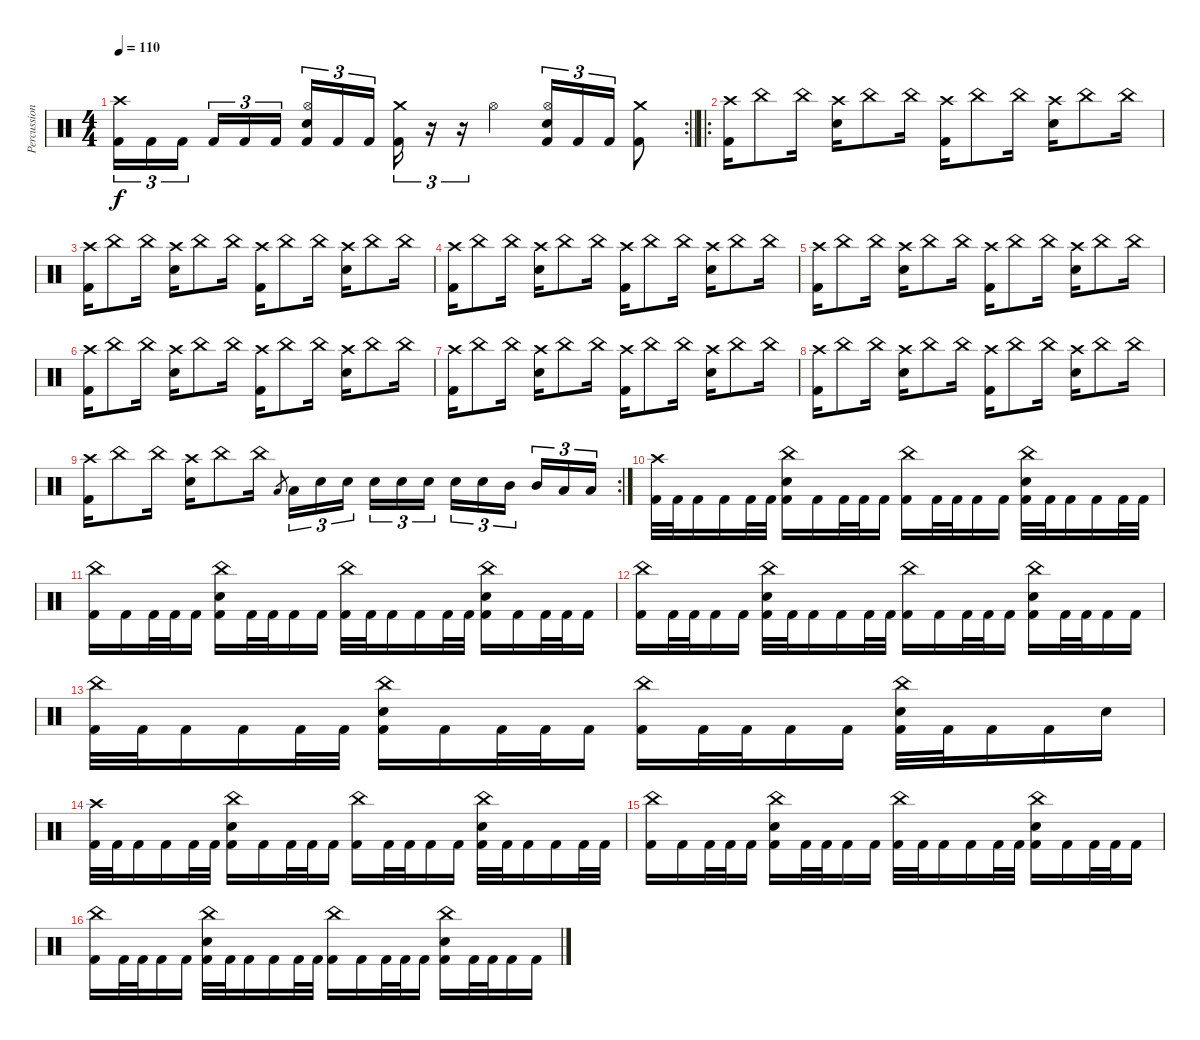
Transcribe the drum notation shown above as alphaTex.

\track ("Percussions" "Percussion") {instrument percussion}
\staff {score}
\articulation defaults
\rc 2
\ts (4 4)
\tempo 110
\clef neutral
\barLineRight lightlight
\ks c
("Crash high (hit)" "Kick (hit) 2").16{tu (3 2) dy f} "Kick (hit) 2".16{tu (3 2)} "Kick (hit) 2".16{tu (3 2) beam splitsecondary} "Kick (hit) 2".16{tu (3 2)} "Kick (hit) 2".16{tu (3 2)} "Kick (hit) 2".16{tu (3 2)} ("Hi-Hat (open)" "Electric Snare (hit)" "Kick (hit) 2").16{tu (3 2)} "Kick (hit) 2".16{tu (3 2)} "Kick (hit) 2".16{tu (3 2) beam splitsecondary} ("Crash medium (hit)" "Kick (hit) 2").16{tu (3 2)} r.16{tu (3 2)} r.16{tu (3 2)} "Hi-Hat (open)".4 ("Hi-Hat (open)" "Electric Snare (hit)" "Kick (hit) 2").16{tu (3 2)} "Kick (hit) 2".16{tu (3 2)} "Kick (hit) 2".16{tu (3 2)} ("Crash medium (hit)" "Kick (hit) 2").8 |
\ro
\section ("" "")
("Crash high (hit)" "Kick (hit) 2").16 "China (hit)".8 "China (hit)".16 ("Crash high (hit)" "Electric Snare (hit)").16 "China (hit)".8 "China (hit)".16 ("Crash high (hit)" "Kick (hit) 2").16 "China (hit)".8 "China (hit)".16 ("Crash high (hit)" "Electric Snare (hit)").16 "China (hit)".8 "China (hit)".16 |
("Crash high (hit)" "Kick (hit) 2").16 "China (hit)".8 "China (hit)".16 ("Crash high (hit)" "Electric Snare (hit)").16 "China (hit)".8 "China (hit)".16 ("Crash high (hit)" "Kick (hit) 2").16 "China (hit)".8 "China (hit)".16 ("Crash high (hit)" "Electric Snare (hit)").16 "China (hit)".8 "China (hit)".16 |
("Crash high (hit)" "Kick (hit) 2").16 "China (hit)".8 "China (hit)".16 ("Crash high (hit)" "Electric Snare (hit)").16 "China (hit)".8 "China (hit)".16 ("Crash high (hit)" "Kick (hit) 2").16 "China (hit)".8 "China (hit)".16 ("Crash high (hit)" "Electric Snare (hit)").16 "China (hit)".8 "China (hit)".16 |
("Crash high (hit)" "Kick (hit) 2").16 "China (hit)".8 "China (hit)".16 ("Crash high (hit)" "Electric Snare (hit)").16 "China (hit)".8 "China (hit)".16 ("Crash high (hit)" "Kick (hit) 2").16 "China (hit)".8 "China (hit)".16 ("Crash high (hit)" "Electric Snare (hit)").16 "China (hit)".8 "China (hit)".16 |
("Crash high (hit)" "Kick (hit) 2").16 "China (hit)".8 "China (hit)".16 ("Crash high (hit)" "Electric Snare (hit)").16 "China (hit)".8 "China (hit)".16 ("Crash high (hit)" "Kick (hit) 2").16 "China (hit)".8 "China (hit)".16 ("Crash high (hit)" "Electric Snare (hit)").16 "China (hit)".8 "China (hit)".16 |
("Crash high (hit)" "Kick (hit) 2").16 "China (hit)".8 "China (hit)".16 ("Crash high (hit)" "Electric Snare (hit)").16 "China (hit)".8 "China (hit)".16 ("Crash high (hit)" "Kick (hit) 2").16 "China (hit)".8 "China (hit)".16 ("Crash high (hit)" "Electric Snare (hit)").16 "China (hit)".8 "China (hit)".16 |
("Crash high (hit)" "Kick (hit) 2").16 "China (hit)".8 "China (hit)".16 ("Crash high (hit)" "Electric Snare (hit)").16 "China (hit)".8 "China (hit)".16 ("Crash high (hit)" "Kick (hit) 2").16 "China (hit)".8 "China (hit)".16 ("Crash high (hit)" "Electric Snare (hit)").16 "China (hit)".8 "China (hit)".16 |
\rc 2
("Crash high (hit)" "Kick (hit) 2").16 "China (hit)".8 "China (hit)".16 ("Crash high (hit)" "Electric Snare (hit)").16 "China (hit)".8 "China (hit)".16 "Low Tom (hit)".8{gr} "Low Tom (hit)".16{tu (3 2)} "Electric Snare (hit)".16{tu (3 2)} "Electric Snare (hit)".16{tu (3 2) beam splitsecondary} "Electric Snare (hit)".16{tu (3 2)} "Electric Snare (hit)".16{tu (3 2)} "Electric Snare (hit)".16{tu (3 2)} "Electric Snare (hit)".16{tu (3 2)} "Electric Snare (hit)".16{tu (3 2)} "Mid Tom (hit)".16{tu (3 2) beam splitsecondary} "Mid Tom (hit)".16{tu (3 2)} "Low Tom (hit)".16{tu (3 2)} "Low Tom (hit)".16{tu (3 2)} |
("Crash high (hit)" "Kick (hit) 2").32 "Kick (hit) 2".32 "Kick (hit) 2".16 "Kick (hit) 2".16 "Kick (hit) 2".32 "Kick (hit) 2".32 ("China (hit)" "Electric Snare (hit)" "Kick (hit) 2").16 "Kick (hit) 2".16 "Kick (hit) 2".32 "Kick (hit) 2".32 "Kick (hit) 2".16 ("China (hit)" "Kick (hit) 2").16 "Kick (hit) 2".32 "Kick (hit) 2".32 "Kick (hit) 2".16 "Kick (hit) 2".16 ("China (hit)" "Electric Snare (hit)" "Kick (hit) 2").32 "Kick (hit) 2".32 "Kick (hit) 2".16 "Kick (hit) 2".16 "Kick (hit) 2".32 "Kick (hit) 2".32 |
("China (hit)" "Kick (hit) 2").16 "Kick (hit) 2".16 "Kick (hit) 2".32 "Kick (hit) 2".32 "Kick (hit) 2".16 ("China (hit)" "Electric Snare (hit)" "Kick (hit) 2").16 "Kick (hit) 2".32 "Kick (hit) 2".32 "Kick (hit) 2".16 "Kick (hit) 2".16 ("China (hit)" "Kick (hit) 2").32 "Kick (hit) 2".32 "Kick (hit) 2".16 "Kick (hit) 2".16 "Kick (hit) 2".32 "Kick (hit) 2".32 ("China (hit)" "Electric Snare (hit)" "Kick (hit) 2").16 "Kick (hit) 2".16 "Kick (hit) 2".32 "Kick (hit) 2".32 "Kick (hit) 2".16 |
("China (hit)" "Kick (hit) 2").16 "Kick (hit) 2".32 "Kick (hit) 2".32 "Kick (hit) 2".16 "Kick (hit) 2".16 ("China (hit)" "Electric Snare (hit)" "Kick (hit) 2").32 "Kick (hit) 2".32 "Kick (hit) 2".16 "Kick (hit) 2".16 "Kick (hit) 2".32 "Kick (hit) 2".32 ("China (hit)" "Kick (hit) 2").16 "Kick (hit) 2".16 "Kick (hit) 2".32 "Kick (hit) 2".32 "Kick (hit) 2".16 ("China (hit)" "Electric Snare (hit)" "Kick (hit) 2").16 "Kick (hit) 2".32 "Kick (hit) 2".32 "Kick (hit) 2".16 "Kick (hit) 2".16 |
("China (hit)" "Kick (hit) 2").32 "Kick (hit) 2".32 "Kick (hit) 2".16 "Kick (hit) 2".16 "Kick (hit) 2".32 "Kick (hit) 2".32 ("China (hit)" "Electric Snare (hit)" "Kick (hit) 2").16 "Kick (hit) 2".16 "Kick (hit) 2".32 "Kick (hit) 2".32 "Kick (hit) 2".16 ("China (hit)" "Kick (hit) 2").16 "Kick (hit) 2".32 "Kick (hit) 2".32 "Kick (hit) 2".16 "Kick (hit) 2".16 ("China (hit)" "Electric Snare (hit)" "Kick (hit) 2").32 "Kick (hit) 2".32 "Kick (hit) 2".16 "Kick (hit) 2".16 "Electric Snare (hit)".16 |
("Crash high (hit)" "Kick (hit) 2").32 "Kick (hit) 2".32 "Kick (hit) 2".16 "Kick (hit) 2".16 "Kick (hit) 2".32 "Kick (hit) 2".32 ("China (hit)" "Electric Snare (hit)" "Kick (hit) 2").16 "Kick (hit) 2".16 "Kick (hit) 2".32 "Kick (hit) 2".32 "Kick (hit) 2".16 ("China (hit)" "Kick (hit) 2").16 "Kick (hit) 2".32 "Kick (hit) 2".32 "Kick (hit) 2".16 "Kick (hit) 2".16 ("China (hit)" "Electric Snare (hit)" "Kick (hit) 2").32 "Kick (hit) 2".32 "Kick (hit) 2".16 "Kick (hit) 2".16 "Kick (hit) 2".32 "Kick (hit) 2".32 |
("China (hit)" "Kick (hit) 2").16 "Kick (hit) 2".16 "Kick (hit) 2".32 "Kick (hit) 2".32 "Kick (hit) 2".16 ("China (hit)" "Electric Snare (hit)" "Kick (hit) 2").16 "Kick (hit) 2".32 "Kick (hit) 2".32 "Kick (hit) 2".16 "Kick (hit) 2".16 ("China (hit)" "Kick (hit) 2").32 "Kick (hit) 2".32 "Kick (hit) 2".16 "Kick (hit) 2".16 "Kick (hit) 2".32 "Kick (hit) 2".32 ("China (hit)" "Electric Snare (hit)" "Kick (hit) 2").16 "Kick (hit) 2".16 "Kick (hit) 2".32 "Kick (hit) 2".32 "Kick (hit) 2".16 |
("China (hit)" "Kick (hit) 2").16 "Kick (hit) 2".32 "Kick (hit) 2".32 "Kick (hit) 2".16 "Kick (hit) 2".16 ("China (hit)" "Electric Snare (hit)" "Kick (hit) 2").32 "Kick (hit) 2".32 "Kick (hit) 2".16 "Kick (hit) 2".16 "Kick (hit) 2".32 "Kick (hit) 2".32 ("China (hit)" "Kick (hit) 2").16 "Kick (hit) 2".16 "Kick (hit) 2".32 "Kick (hit) 2".32 "Kick (hit) 2".16 ("China (hit)" "Electric Snare (hit)" "Kick (hit) 2").16 "Kick (hit) 2".32 "Kick (hit) 2".32 "Kick (hit) 2".16 "Kick (hit) 2".16
